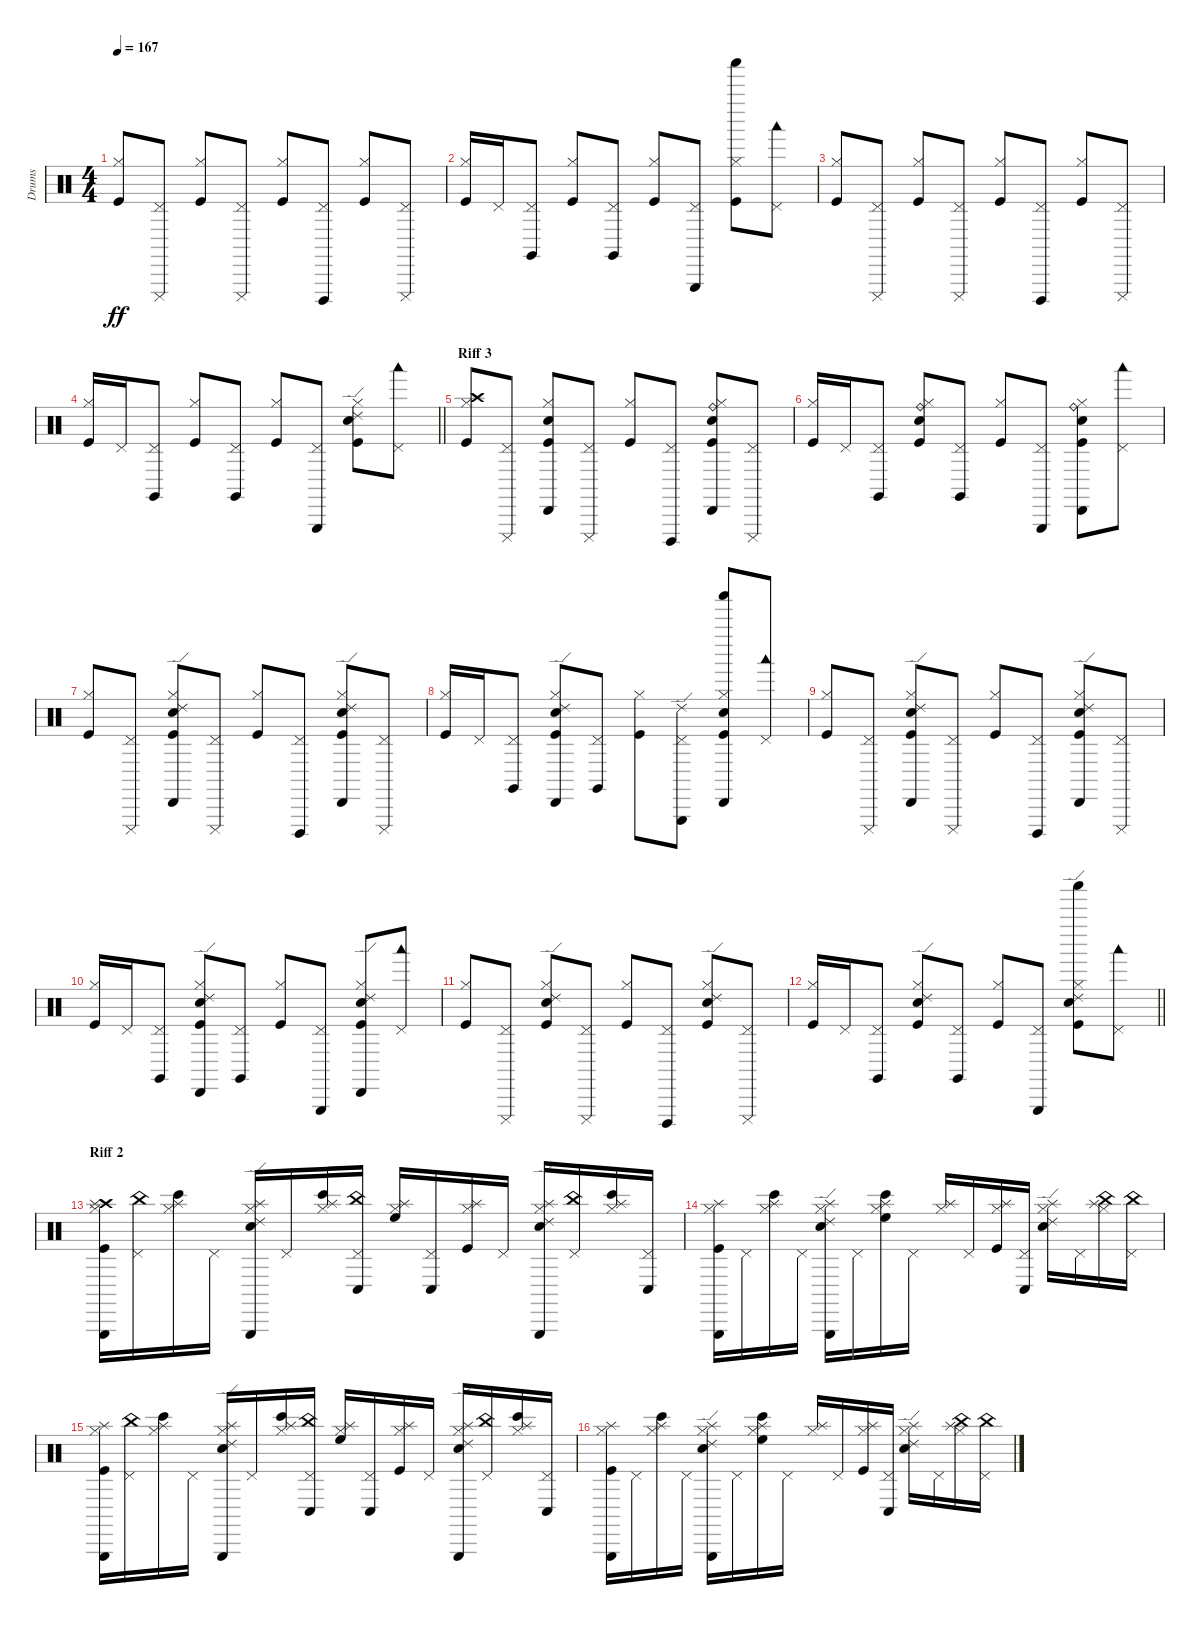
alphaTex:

\track ("Drums" "Drums") {instrument percussion}
\staff {score}
\articulation defaults
\ts (4 4)
\tempo 167
\clef neutral
\ks c
("Kick (hit)" "Hi-Hat (closed)").8{dy ff} ("Pedal Hi-Hat (hit)" "Cuica (mute)").8 ("Kick (hit)" "Hi-Hat (closed)").8 ("Pedal Hi-Hat (hit)" "Cuica (mute)").8 ("Kick (hit)" "Hi-Hat (closed)").8 ("Pedal Hi-Hat (hit)" "Cuica (open)").8 ("Kick (hit)" "Hi-Hat (closed)").8 ("Pedal Hi-Hat (hit)" "Cuica (mute)").8 |
("Kick (hit)" "Hi-Hat (closed)").16 "Pedal Hi-Hat (hit)".16 ("Pedal Hi-Hat (hit)" "Claves (hit)").8 ("Kick (hit)" "Hi-Hat (closed)").8 ("Pedal Hi-Hat (hit)" "Claves (hit)").8 ("Kick (hit)" "Hi-Hat (closed)").8 ("Pedal Hi-Hat (hit)" "Triangle (hit)").8 ("Kick (hit)" "Hi-Hat (closed)" "Shaker (hit)").8 ("Pedal Hi-Hat (hit)" "Woodblock low (hit)").8 |
("Kick (hit)" "Hi-Hat (closed)").8 ("Pedal Hi-Hat (hit)" "Cuica (mute)").8 ("Kick (hit)" "Hi-Hat (closed)").8 ("Pedal Hi-Hat (hit)" "Cuica (mute)").8 ("Kick (hit)" "Hi-Hat (closed)").8 ("Pedal Hi-Hat (hit)" "Cuica (open)").8 ("Kick (hit)" "Hi-Hat (closed)").8 ("Pedal Hi-Hat (hit)" "Cuica (mute)").8 |
\barLineRight lightlight
("Kick (hit)" "Hi-Hat (closed)").16 "Pedal Hi-Hat (hit)".16 ("Pedal Hi-Hat (hit)" "Claves (hit)").8 ("Kick (hit)" "Hi-Hat (closed)").8 ("Pedal Hi-Hat (hit)" "Claves (hit)").8 ("Kick (hit)" "Hi-Hat (closed)").8 ("Pedal Hi-Hat (hit)" "Triangle (hit)").8 ("Kick (hit)" "Hi-Hat (closed)" "Ride (edge) 2" "Snare (hit) 2").8 ("Pedal Hi-Hat (hit)" "Woodblock low (hit)").8 |
\section ("" "Riff 3")
("Kick (hit)" "Hi-Hat (closed)" "Crash high (hit)").8 ("Pedal Hi-Hat (hit)" "Cuica (mute)").8 ("Kick (hit)" "Hi-Hat (closed)" "Snare (hit) 2" "Cabasa (hit)").8 ("Pedal Hi-Hat (hit)" "Cuica (mute)").8 ("Kick (hit)" "Hi-Hat (closed)").8 ("Pedal Hi-Hat (hit)" "Cuica (open)").8 ("Kick (hit)" "Hi-Hat (closed)" "Ride (bell)" "Cabasa (hit)" "Snare (hit) 2").8 ("Pedal Hi-Hat (hit)" "Cuica (mute)").8 |
("Kick (hit)" "Hi-Hat (closed)").16 "Pedal Hi-Hat (hit)".16 ("Pedal Hi-Hat (hit)" "Claves (hit)").8 ("Kick (hit)" "Hi-Hat (closed)" "Ride (bell)" "Snare (hit) 2").8 ("Pedal Hi-Hat (hit)" "Claves (hit)").8 ("Kick (hit)" "Hi-Hat (closed)").8 ("Pedal Hi-Hat (hit)" "Triangle (hit)").8 ("Kick (hit)" "Hi-Hat (closed)" "Ride (bell)" "Cabasa (hit)" "Snare (hit) 2").8 ("Pedal Hi-Hat (hit)" "Woodblock low (hit)").8 |
("Kick (hit)" "Hi-Hat (closed)").8 ("Pedal Hi-Hat (hit)" "Cuica (mute)").8 ("Kick (hit)" "Hi-Hat (closed)" "Ride (edge) 2" "Cabasa (hit)" "Snare (hit) 2").8 ("Pedal Hi-Hat (hit)" "Cuica (mute)").8 ("Kick (hit)" "Hi-Hat (closed)").8 ("Pedal Hi-Hat (hit)" "Cuica (open)").8 ("Kick (hit)" "Hi-Hat (closed)" "Ride (edge) 2" "Cabasa (hit)" "Snare (hit) 2").8 ("Pedal Hi-Hat (hit)" "Cuica (mute)").8 |
("Kick (hit)" "Hi-Hat (closed)").16 "Pedal Hi-Hat (hit)".16 ("Pedal Hi-Hat (hit)" "Claves (hit)").8 ("Kick (hit)" "Hi-Hat (closed)" "Ride (edge) 2" "Cabasa (hit)" "Snare (hit) 2").8 ("Pedal Hi-Hat (hit)" "Claves (hit)").8 ("Kick (hit)" "Hi-Hat (closed)").8 ("Pedal Hi-Hat (hit)" "Ride (edge) 2" "Triangle (hit)").8 ("Kick (hit)" "Hi-Hat (closed)" "Cabasa (hit)" "Shaker (hit)" "Snare (hit) 2").8 ("Pedal Hi-Hat (hit)" "Woodblock low (hit)").8 |
("Kick (hit)" "Hi-Hat (closed)").8 ("Pedal Hi-Hat (hit)" "Cuica (mute)").8 ("Kick (hit)" "Hi-Hat (closed)" "Ride (edge) 2" "Cabasa (hit)" "Snare (hit) 2").8 ("Pedal Hi-Hat (hit)" "Cuica (mute)").8 ("Kick (hit)" "Hi-Hat (closed)").8 ("Pedal Hi-Hat (hit)" "Cuica (open)").8 ("Kick (hit)" "Hi-Hat (closed)" "Ride (edge) 2" "Cabasa (hit)" "Snare (hit) 2").8 ("Pedal Hi-Hat (hit)" "Cuica (mute)").8 |
("Kick (hit)" "Hi-Hat (closed)").16 "Pedal Hi-Hat (hit)".16 ("Pedal Hi-Hat (hit)" "Claves (hit)").8 ("Kick (hit)" "Hi-Hat (closed)" "Ride (edge) 2" "Cabasa (hit)" "Snare (hit) 2").8 ("Pedal Hi-Hat (hit)" "Claves (hit)").8 ("Kick (hit)" "Hi-Hat (closed)").8 ("Pedal Hi-Hat (hit)" "Triangle (hit)").8 ("Kick (hit)" "Hi-Hat (closed)" "Ride (edge) 2" "Cabasa (hit)" "Snare (hit) 2").8 ("Pedal Hi-Hat (hit)" "Woodblock low (hit)").8 |
("Kick (hit)" "Hi-Hat (closed)").8 ("Pedal Hi-Hat (hit)" "Cuica (mute)").8 ("Kick (hit)" "Hi-Hat (closed)" "Ride (edge) 2" "Snare (hit) 2").8 ("Pedal Hi-Hat (hit)" "Cuica (mute)").8 ("Kick (hit)" "Hi-Hat (closed)").8 ("Pedal Hi-Hat (hit)" "Cuica (open)").8 ("Kick (hit)" "Hi-Hat (closed)" "Ride (edge) 2" "Snare (hit) 2").8 ("Pedal Hi-Hat (hit)" "Cuica (mute)").8 |
\barLineRight lightlight
("Kick (hit)" "Hi-Hat (closed)").16 "Pedal Hi-Hat (hit)".16 ("Pedal Hi-Hat (hit)" "Claves (hit)").8 ("Kick (hit)" "Hi-Hat (closed)" "Ride (edge) 2" "Snare (hit) 2").8 ("Pedal Hi-Hat (hit)" "Claves (hit)").8 ("Kick (hit)" "Hi-Hat (closed)").8 ("Pedal Hi-Hat (hit)" "Triangle (hit)").8 ("Kick (hit)" "Hi-Hat (closed)" "Ride (edge) 2" "Snare (hit) 2" "Shaker (hit)").8 ("Pedal Hi-Hat (hit)" "Woodblock low (hit)").8 |
\section ("" "Riff 2")
("Kick (hit)" "Hi-Hat (closed)" "Crash high (hit)" "Splash (hit)" "Triangle (hit)").16 ("Pedal Hi-Hat (hit)" "China (hit)").16 ("Hi-Hat (closed)" "Splash (hit)" "Bongo High (hit)").16 "Pedal Hi-Hat (hit)".16 ("Electric Snare (hit)" "Hi-Hat (closed)" "Splash (hit)" "Ride (edge) 2" "Triangle (hit)").16 "Pedal Hi-Hat (hit)".16 ("Hi-Hat (closed)" "Splash (hit)" "Bongo High (hit)").16 ("Pedal Hi-Hat (hit)" "China (hit)" "Conga low (hit)").16 ("Hi-Hat (closed)" "High Floor Tom (hit)" "Splash (hit)").16 ("Pedal Hi-Hat (hit)" "Conga low (hit)").16 ("Kick (hit)" "Hi-Hat (closed)" "Splash (hit)").16 "Pedal Hi-Hat (hit)".16 ("Electric Snare (hit)" "Hi-Hat (closed)" "Splash (hit)" "Ride (edge) 2" "Triangle (hit)").16 ("Pedal Hi-Hat (hit)" "China (hit)").16 ("Hi-Hat (closed)" "Splash (hit)" "Bongo High (hit)").16 ("Pedal Hi-Hat (hit)" "Conga low (hit)").16 |
("Kick (hit)" "Hi-Hat (closed)" "Splash (hit)" "Triangle (hit)").16 "Pedal Hi-Hat (hit)".16 ("Hi-Hat (closed)" "Splash (hit)" "Bongo High (hit)").16 "Pedal Hi-Hat (hit)".16 ("Electric Snare (hit)" "Hi-Hat (closed)" "Splash (hit)" "Ride (edge) 2" "Triangle (hit)").16 "Pedal Hi-Hat (hit)".16 ("Hi-Hat (closed)" "High Floor Tom (hit)" "Splash (hit)" "Bongo High (hit)").16 "Pedal Hi-Hat (hit)".16 ("Hi-Hat (closed)" "Splash (hit)").16 "Pedal Hi-Hat (hit)".16 ("Kick (hit)" "Hi-Hat (closed)" "Splash (hit)").16 ("Pedal Hi-Hat (hit)" "Conga low (hit)").16 ("Electric Snare (hit)" "Hi-Hat (closed)" "Splash (hit)" "Ride (edge) 2").16 "Pedal Hi-Hat (hit)".16 ("Hi-Hat (closed)" "China (hit)" "Splash (hit)").16 ("Pedal Hi-Hat (hit)" "China (hit)").16 |
("Kick (hit)" "Hi-Hat (closed)" "Splash (hit)" "Triangle (hit)").16 ("Pedal Hi-Hat (hit)" "China (hit)").16 ("Hi-Hat (closed)" "Splash (hit)" "Bongo High (hit)").16 "Pedal Hi-Hat (hit)".16 ("Electric Snare (hit)" "Hi-Hat (closed)" "Splash (hit)" "Ride (edge) 2" "Triangle (hit)").16 "Pedal Hi-Hat (hit)".16 ("Hi-Hat (closed)" "Splash (hit)" "Bongo High (hit)").16 ("Pedal Hi-Hat (hit)" "China (hit)" "Conga low (hit)").16 ("Hi-Hat (closed)" "High Floor Tom (hit)" "Splash (hit)").16 ("Pedal Hi-Hat (hit)" "Conga low (hit)").16 ("Kick (hit)" "Hi-Hat (closed)" "Splash (hit)").16 "Pedal Hi-Hat (hit)".16 ("Electric Snare (hit)" "Hi-Hat (closed)" "Splash (hit)" "Ride (edge) 2" "Triangle (hit)").16 ("Pedal Hi-Hat (hit)" "China (hit)").16 ("Hi-Hat (closed)" "Splash (hit)" "Bongo High (hit)").16 ("Pedal Hi-Hat (hit)" "Conga low (hit)").16 |
("Kick (hit)" "Hi-Hat (closed)" "Splash (hit)" "Triangle (hit)").16 "Pedal Hi-Hat (hit)".16 ("Hi-Hat (closed)" "Splash (hit)" "Bongo High (hit)").16 "Pedal Hi-Hat (hit)".16 ("Electric Snare (hit)" "Hi-Hat (closed)" "Splash (hit)" "Ride (edge) 2" "Triangle (hit)").16 "Pedal Hi-Hat (hit)".16 ("Hi-Hat (closed)" "High Floor Tom (hit)" "Splash (hit)" "Bongo High (hit)").16 "Pedal Hi-Hat (hit)".16 ("Hi-Hat (closed)" "Splash (hit)").16 "Pedal Hi-Hat (hit)".16 ("Kick (hit)" "Hi-Hat (closed)" "Splash (hit)").16 ("Pedal Hi-Hat (hit)" "Conga low (hit)").16 ("Electric Snare (hit)" "Hi-Hat (closed)" "Splash (hit)" "Ride (edge) 2").16 "Pedal Hi-Hat (hit)".16 ("Hi-Hat (closed)" "China (hit)" "Splash (hit)").16 ("Pedal Hi-Hat (hit)" "China (hit)").16
